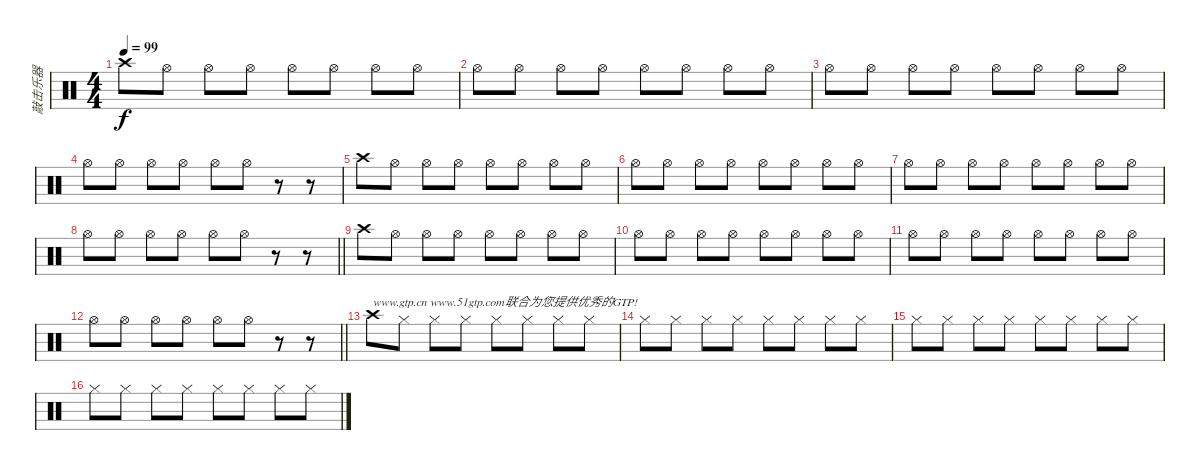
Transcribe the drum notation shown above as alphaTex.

\track ("敲击乐器" "敲击乐器") {instrument percussion}
\staff {score}
\articulation defaults
\ts (4 4)
\tempo 99
\clef neutral
\ks c "Crash high (hit)".8{dy f} "Hi-Hat (open)".8 "Hi-Hat (open)".8 "Hi-Hat (open)".8 "Hi-Hat (open)".8 "Hi-Hat (open)".8 "Hi-Hat (open)".8 "Hi-Hat (open)".8
|
"Hi-Hat (open)".8 "Hi-Hat (open)".8 "Hi-Hat (open)".8 "Hi-Hat (open)".8 "Hi-Hat (open)".8 "Hi-Hat (open)".8 "Hi-Hat (open)".8 "Hi-Hat (open)".8 |
"Hi-Hat (open)".8 "Hi-Hat (open)".8 "Hi-Hat (open)".8 "Hi-Hat (open)".8 "Hi-Hat (open)".8 "Hi-Hat (open)".8 "Hi-Hat (open)".8 "Hi-Hat (open)".8 |
"Hi-Hat (open)".8 "Hi-Hat (open)".8 "Hi-Hat (open)".8 "Hi-Hat (open)".8 "Hi-Hat (open)".8 "Hi-Hat (open)".8 r.8 r.8 |
"Crash high (hit)".8 "Hi-Hat (open)".8 "Hi-Hat (open)".8 "Hi-Hat (open)".8 "Hi-Hat (open)".8 "Hi-Hat (open)".8 "Hi-Hat (open)".8 "Hi-Hat (open)".8 |
"Hi-Hat (open)".8 "Hi-Hat (open)".8 "Hi-Hat (open)".8 "Hi-Hat (open)".8 "Hi-Hat (open)".8 "Hi-Hat (open)".8 "Hi-Hat (open)".8 "Hi-Hat (open)".8 |
"Hi-Hat (open)".8 "Hi-Hat (open)".8 "Hi-Hat (open)".8 "Hi-Hat (open)".8 "Hi-Hat (open)".8 "Hi-Hat (open)".8 "Hi-Hat (open)".8 "Hi-Hat (open)".8 |
\barLineRight lightlight "Hi-Hat (open)".8 "Hi-Hat (open)".8 "Hi-Hat (open)".8 "Hi-Hat (open)".8 "Hi-Hat (open)".8 "Hi-Hat (open)".8
r.8 r.8 |
"Crash high (hit)".8 "Hi-Hat (open)".8 "Hi-Hat (open)".8 "Hi-Hat (open)".8 "Hi-Hat (open)".8 "Hi-Hat (open)".8 "Hi-Hat (open)".8 "Hi-Hat (open)".8 |
"Hi-Hat (open)".8 "Hi-Hat (open)".8 "Hi-Hat (open)".8 "Hi-Hat (open)".8 "Hi-Hat (open)".8 "Hi-Hat (open)".8 "Hi-Hat (open)".8 "Hi-Hat (open)".8 |
"Hi-Hat (open)".8 "Hi-Hat (open)".8 "Hi-Hat (open)".8 "Hi-Hat (open)".8 "Hi-Hat (open)".8 "Hi-Hat (open)".8 "Hi-Hat (open)".8 "Hi-Hat (open)".8 |
\barLineRight lightlight "Hi-Hat (open)".8 "Hi-Hat (open)".8 "Hi-Hat (open)".8 "Hi-Hat (open)".8 "Hi-Hat (open)".8 "Hi-Hat (open)".8
r.8 r.8 |
"Crash high (hit)".8{txt "www.gtp.cn www.51gtp.com联合为您提供优秀的GTP!"} "Hi-Hat (closed)".8 "Hi-Hat (closed)".8 "Hi-Hat (closed)".8 "Hi-Hat (closed)".8 "Hi-Hat (closed)".8 "Hi-Hat (closed)".8 "Hi-Hat (closed)".8 |
"Hi-Hat (closed)".8 "Hi-Hat (closed)".8 "Hi-Hat (closed)".8 "Hi-Hat (closed)".8 "Hi-Hat (closed)".8 "Hi-Hat (closed)".8 "Hi-Hat (closed)".8 "Hi-Hat (closed)".8 |
"Hi-Hat (closed)".8 "Hi-Hat (closed)".8 "Hi-Hat (closed)".8 "Hi-Hat (closed)".8 "Hi-Hat (closed)".8 "Hi-Hat (closed)".8 "Hi-Hat (closed)".8 "Hi-Hat (closed)".8 |
"Hi-Hat (closed)".8 "Hi-Hat (closed)".8 "Hi-Hat (closed)".8 "Hi-Hat (closed)".8 "Hi-Hat (closed)".8 "Hi-Hat (closed)".8 "Hi-Hat (closed)".8 "Hi-Hat (closed)".8
